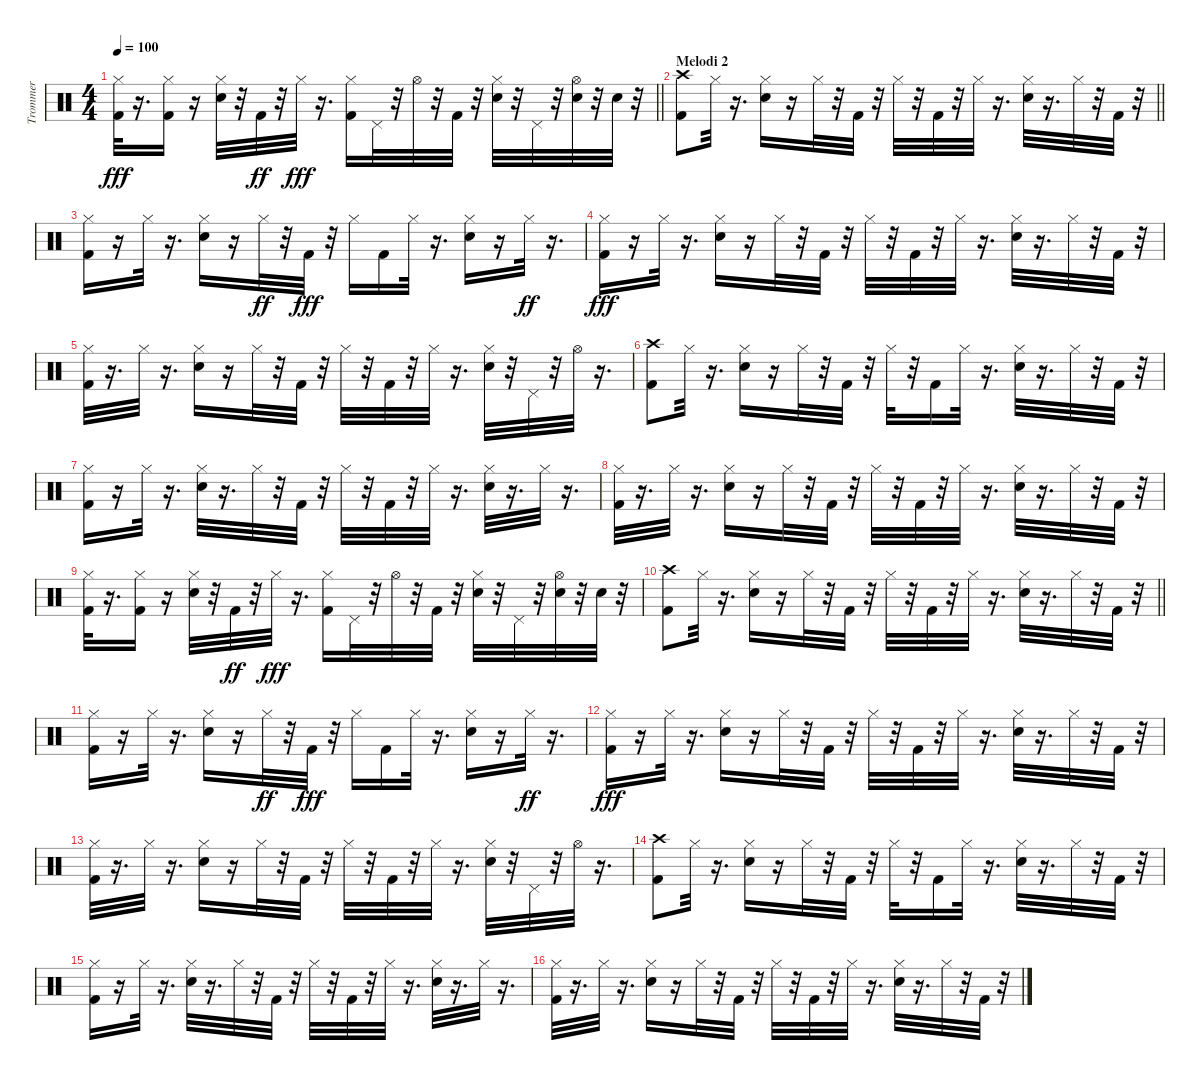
\track ("Trommer" "Trommer") {instrument percussion}
\staff {score}
\articulation defaults
\ts (4 4)
\tempo 100
\clef neutral
\barLineRight lightlight
\ks c
("Kick (hit) 2" "Hi-Hat (closed)").32{dy fff} r.16{d} ("Kick (hit) 2" "Hi-Hat (closed)").16 r.16 ("Snare (hit) 2" "Hi-Hat (closed)").32 r.32 "Kick (hit) 2".32{dy ff} r.32 "Hi-Hat (closed)".32{dy fff} r.16{d} ("Kick (hit) 2" "Hi-Hat (closed)").16 "Pedal Hi-Hat (hit)".32 r.32 "Hi-Hat (open)".32 r.32 "Kick (hit) 2".32 r.32 ("Snare (hit) 2" "Hi-Hat (closed)").32 r.32 "Pedal Hi-Hat (hit)".32 r.32 ("Snare (hit) 2" "Hi-Hat (open)").32 r.32 "Snare (hit) 2".32 r.32 |
\section ("" "Melodi 2")
\barLineRight lightlight
("Kick (hit) 2" "Crash high (hit)").8 "Hi-Hat (closed)".32 r.16{d} ("Snare (hit) 2" "Hi-Hat (closed)").16 r.16 "Hi-Hat (closed)".32 r.32 "Kick (hit) 2".32 r.32 "Hi-Hat (closed)".32 r.32 "Kick (hit) 2".32 r.32 "Hi-Hat (closed)".32 r.16{d} ("Snare (hit) 2" "Hi-Hat (closed)").32 r.16{d} "Hi-Hat (closed)".32 r.32 "Kick (hit) 2".32 r.32 |
("Kick (hit) 2" "Hi-Hat (closed)").16 r.16 "Hi-Hat (closed)".32 r.16{d} ("Snare (hit) 2" "Hi-Hat (closed)").16 r.16 "Hi-Hat (closed)".32{dy ff} r.32 "Kick (hit) 2".32{dy fff} r.32 "Hi-Hat (closed)".16 "Kick (hit) 2".16 "Hi-Hat (closed)".32 r.16{d} ("Snare (hit) 2" "Hi-Hat (closed)").16 r.16 "Hi-Hat (closed)".32{dy ff} r.16{d} |
("Kick (hit) 2" "Hi-Hat (closed)").16{dy fff} r.16 "Hi-Hat (closed)".32 r.16{d} ("Snare (hit) 2" "Hi-Hat (closed)").16 r.16 "Hi-Hat (closed)".32 r.32 "Kick (hit) 2".32 r.32 "Hi-Hat (closed)".32 r.32 "Kick (hit) 2".32 r.32 "Hi-Hat (closed)".32 r.16{d} ("Snare (hit) 2" "Hi-Hat (closed)").32 r.16{d} "Hi-Hat (closed)".32 r.32 "Kick (hit) 2".32 r.32 |
("Kick (hit) 2" "Hi-Hat (closed)").32 r.16{d} "Hi-Hat (closed)".32 r.16{d} ("Snare (hit) 2" "Hi-Hat (closed)").16 r.16 "Hi-Hat (closed)".32 r.32 "Kick (hit) 2".32 r.32 "Hi-Hat (closed)".32 r.32 "Kick (hit) 2".32 r.32 "Hi-Hat (closed)".32 r.16{d} ("Snare (hit) 2" "Hi-Hat (closed)").32 r.32 "Pedal Hi-Hat (hit)".32 r.32 "Hi-Hat (open)".32 r.16{d} |
("Kick (hit) 2" "Crash high (hit)").8 "Hi-Hat (closed)".32 r.16{d} ("Snare (hit) 2" "Hi-Hat (closed)").16 r.16 "Hi-Hat (closed)".32 r.32 "Kick (hit) 2".32 r.32 "Hi-Hat (closed)".32 r.32 "Kick (hit) 2".16 "Hi-Hat (closed)".32 r.16{d} ("Snare (hit) 2" "Hi-Hat (closed)").32 r.16{d} "Hi-Hat (closed)".32 r.32 "Kick (hit) 2".32 r.32 |
("Kick (hit) 2" "Hi-Hat (closed)").16 r.16 "Hi-Hat (closed)".32 r.16{d} ("Snare (hit) 2" "Hi-Hat (closed)").32 r.16{d} "Hi-Hat (closed)".32 r.32 "Kick (hit) 2".32 r.32 "Hi-Hat (closed)".32 r.32 "Kick (hit) 2".32 r.32 "Hi-Hat (closed)".32 r.16{d} ("Snare (hit) 2" "Hi-Hat (closed)").32 r.16{d} "Hi-Hat (closed)".32 r.16{d} |
("Kick (hit) 2" "Hi-Hat (closed)").32 r.16{d} "Hi-Hat (closed)".32 r.16{d} ("Snare (hit) 2" "Hi-Hat (closed)").16 r.16 "Hi-Hat (closed)".32 r.32 "Kick (hit) 2".32 r.32 "Hi-Hat (closed)".32 r.32 "Kick (hit) 2".32 r.32 "Hi-Hat (closed)".32 r.16{d} ("Snare (hit) 2" "Hi-Hat (closed)").32 r.16{d} "Hi-Hat (closed)".32 r.32 "Kick (hit) 2".32 r.32 |
("Kick (hit) 2" "Hi-Hat (closed)").32 r.16{d} ("Kick (hit) 2" "Hi-Hat (closed)").16 r.16 ("Snare (hit) 2" "Hi-Hat (closed)").32 r.32 "Kick (hit) 2".32{dy ff} r.32 "Hi-Hat (closed)".32{dy fff} r.16{d} ("Kick (hit) 2" "Hi-Hat (closed)").16 "Pedal Hi-Hat (hit)".32 r.32 "Hi-Hat (open)".32 r.32 "Kick (hit) 2".32 r.32 ("Snare (hit) 2" "Hi-Hat (closed)").32 r.32 "Pedal Hi-Hat (hit)".32 r.32 ("Snare (hit) 2" "Hi-Hat (open)").32 r.32 "Snare (hit) 2".32 r.32 |
\barLineRight lightlight
("Kick (hit) 2" "Crash high (hit)").8 "Hi-Hat (closed)".32 r.16{d} ("Snare (hit) 2" "Hi-Hat (closed)").16 r.16 "Hi-Hat (closed)".32 r.32 "Kick (hit) 2".32 r.32 "Hi-Hat (closed)".32 r.32 "Kick (hit) 2".32 r.32 "Hi-Hat (closed)".32 r.16{d} ("Snare (hit) 2" "Hi-Hat (closed)").32 r.16{d} "Hi-Hat (closed)".32 r.32 "Kick (hit) 2".32 r.32 |
("Kick (hit) 2" "Hi-Hat (closed)").16 r.16 "Hi-Hat (closed)".32 r.16{d} ("Snare (hit) 2" "Hi-Hat (closed)").16 r.16 "Hi-Hat (closed)".32{dy ff} r.32 "Kick (hit) 2".32{dy fff} r.32 "Hi-Hat (closed)".16 "Kick (hit) 2".16 "Hi-Hat (closed)".32 r.16{d} ("Snare (hit) 2" "Hi-Hat (closed)").16 r.16 "Hi-Hat (closed)".32{dy ff} r.16{d} |
("Kick (hit) 2" "Hi-Hat (closed)").16{dy fff} r.16 "Hi-Hat (closed)".32 r.16{d} ("Snare (hit) 2" "Hi-Hat (closed)").16 r.16 "Hi-Hat (closed)".32 r.32 "Kick (hit) 2".32 r.32 "Hi-Hat (closed)".32 r.32 "Kick (hit) 2".32 r.32 "Hi-Hat (closed)".32 r.16{d} ("Snare (hit) 2" "Hi-Hat (closed)").32 r.16{d} "Hi-Hat (closed)".32 r.32 "Kick (hit) 2".32 r.32 |
("Kick (hit) 2" "Hi-Hat (closed)").32 r.16{d} "Hi-Hat (closed)".32 r.16{d} ("Snare (hit) 2" "Hi-Hat (closed)").16 r.16 "Hi-Hat (closed)".32 r.32 "Kick (hit) 2".32 r.32 "Hi-Hat (closed)".32 r.32 "Kick (hit) 2".32 r.32 "Hi-Hat (closed)".32 r.16{d} ("Snare (hit) 2" "Hi-Hat (closed)").32 r.32 "Pedal Hi-Hat (hit)".32 r.32 "Hi-Hat (open)".32 r.16{d} |
("Kick (hit) 2" "Crash high (hit)").8 "Hi-Hat (closed)".32 r.16{d} ("Snare (hit) 2" "Hi-Hat (closed)").16 r.16 "Hi-Hat (closed)".32 r.32 "Kick (hit) 2".32 r.32 "Hi-Hat (closed)".32 r.32 "Kick (hit) 2".16 "Hi-Hat (closed)".32 r.16{d} ("Snare (hit) 2" "Hi-Hat (closed)").32 r.16{d} "Hi-Hat (closed)".32 r.32 "Kick (hit) 2".32 r.32 |
("Kick (hit) 2" "Hi-Hat (closed)").16 r.16 "Hi-Hat (closed)".32 r.16{d} ("Snare (hit) 2" "Hi-Hat (closed)").32 r.16{d} "Hi-Hat (closed)".32 r.32 "Kick (hit) 2".32 r.32 "Hi-Hat (closed)".32 r.32 "Kick (hit) 2".32 r.32 "Hi-Hat (closed)".32 r.16{d} ("Snare (hit) 2" "Hi-Hat (closed)").32 r.16{d} "Hi-Hat (closed)".32 r.16{d} |
("Kick (hit) 2" "Hi-Hat (closed)").32 r.16{d} "Hi-Hat (closed)".32 r.16{d} ("Snare (hit) 2" "Hi-Hat (closed)").16 r.16 "Hi-Hat (closed)".32 r.32 "Kick (hit) 2".32 r.32 "Hi-Hat (closed)".32 r.32 "Kick (hit) 2".32 r.32 "Hi-Hat (closed)".32 r.16{d} ("Snare (hit) 2" "Hi-Hat (closed)").32 r.16{d} "Hi-Hat (closed)".32 r.32 "Kick (hit) 2".32 r.32
